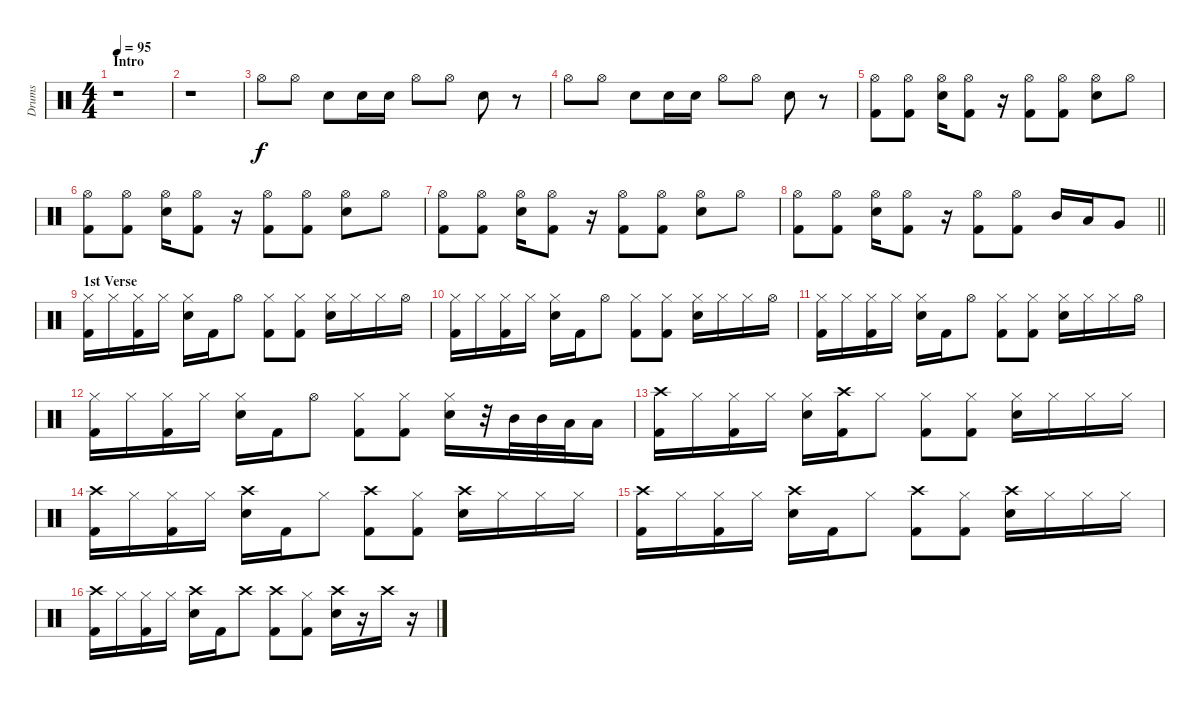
\track ("Drums" "Drums") {instrument percussion}
\staff {score}
\articulation defaults
\ts (4 4)
\section ("" "Intro")
\tempo 95
\clef neutral
\ks c
r.1{dy f} |
r.1 |
"Hi-Hat (open)".8 "Hi-Hat (open)".8 "Hand Clap (hit)".8 "Hand Clap (hit)".16 "Hand Clap (hit)".16 "Hi-Hat (open)".8 "Hi-Hat (open)".8 "Hand Clap (hit)".8 r.8 |
"Hi-Hat (open)".8 "Hi-Hat (open)".8 "Hand Clap (hit)".8 "Hand Clap (hit)".16 "Hand Clap (hit)".16 "Hi-Hat (open)".8 "Hi-Hat (open)".8 "Hand Clap (hit)".8 r.8 |
("Hi-Hat (open)" "Kick (hit) 2").8 ("Hi-Hat (open)" "Kick (hit) 2").8 ("Hi-Hat (open)" "Electric Snare (hit)").16 ("Hi-Hat (open)" "Kick (hit) 2").8 r.16 ("Hi-Hat (open)" "Kick (hit) 2").8 ("Hi-Hat (open)" "Kick (hit) 2").8 ("Hi-Hat (open)" "Electric Snare (hit)").8 "Hi-Hat (open)".8 |
("Hi-Hat (open)" "Kick (hit) 2").8 ("Hi-Hat (open)" "Kick (hit) 2").8 ("Hi-Hat (open)" "Electric Snare (hit)").16 ("Hi-Hat (open)" "Kick (hit) 2").8 r.16 ("Hi-Hat (open)" "Kick (hit) 2").8 ("Hi-Hat (open)" "Kick (hit) 2").8 ("Hi-Hat (open)" "Electric Snare (hit)").8 "Hi-Hat (open)".8 |
("Hi-Hat (open)" "Kick (hit) 2").8 ("Hi-Hat (open)" "Kick (hit) 2").8 ("Hi-Hat (open)" "Electric Snare (hit)").16 ("Hi-Hat (open)" "Kick (hit) 2").8 r.16 ("Hi-Hat (open)" "Kick (hit) 2").8 ("Hi-Hat (open)" "Kick (hit) 2").8 ("Hi-Hat (open)" "Electric Snare (hit)").8 "Hi-Hat (open)".8 |
\barLineRight lightlight
("Hi-Hat (open)" "Kick (hit) 2").8 ("Hi-Hat (open)" "Kick (hit) 2").8 ("Hi-Hat (open)" "Electric Snare (hit)").16 ("Hi-Hat (open)" "Kick (hit) 2").8 r.16 ("Hi-Hat (open)" "Kick (hit) 2").8 ("Hi-Hat (open)" "Kick (hit) 2").8 "Mid Tom (hit)".16 "Low Tom (hit)".16 "Very Low Tom (hit)".8 |
\section ("" "1st Verse")
("Hi-Hat (closed)" "Kick (hit) 2").16 "Hi-Hat (closed)".16 ("Hi-Hat (closed)" "Kick (hit) 2").16 "Hi-Hat (closed)".16 ("Hi-Hat (closed)" "Electric Snare (hit)").16 "Kick (hit) 2".16 "Hi-Hat (open)".8 ("Hi-Hat (closed)" "Kick (hit) 2").8 ("Hi-Hat (closed)" "Kick (hit) 2").8 ("Hi-Hat (closed)" "Electric Snare (hit)").16 "Hi-Hat (closed)".16 "Hi-Hat (closed)".16 "Hi-Hat (open)".16 |
("Hi-Hat (closed)" "Kick (hit) 2").16 "Hi-Hat (closed)".16 ("Hi-Hat (closed)" "Kick (hit) 2").16 "Hi-Hat (closed)".16 ("Hi-Hat (closed)" "Electric Snare (hit)").16 "Kick (hit) 2".16 "Hi-Hat (open)".8 ("Hi-Hat (closed)" "Kick (hit) 2").8 ("Hi-Hat (closed)" "Kick (hit) 2").8 ("Hi-Hat (closed)" "Electric Snare (hit)").16 "Hi-Hat (closed)".16 "Hi-Hat (closed)".16 "Hi-Hat (open)".16 |
("Hi-Hat (closed)" "Kick (hit) 2").16 "Hi-Hat (closed)".16 ("Hi-Hat (closed)" "Kick (hit) 2").16 "Hi-Hat (closed)".16 ("Hi-Hat (closed)" "Electric Snare (hit)").16 "Kick (hit) 2".16 "Hi-Hat (open)".8 ("Hi-Hat (closed)" "Kick (hit) 2").8 ("Hi-Hat (closed)" "Kick (hit) 2").8 ("Hi-Hat (closed)" "Electric Snare (hit)").16 "Hi-Hat (closed)".16 "Hi-Hat (closed)".16 "Hi-Hat (open)".16 |
("Hi-Hat (closed)" "Kick (hit) 2").16 "Hi-Hat (closed)".16 ("Hi-Hat (closed)" "Kick (hit) 2").16 "Hi-Hat (closed)".16 ("Hi-Hat (closed)" "Electric Snare (hit)").16 "Kick (hit) 2".16 "Hi-Hat (open)".8 ("Hi-Hat (closed)" "Kick (hit) 2").8 ("Hi-Hat (closed)" "Kick (hit) 2").8 ("Hi-Hat (closed)" "Electric Snare (hit)").16 r.32 "Mid Tom (hit)".32 "Mid Tom (hit)".32 "Low Tom (hit)".32 "Low Tom (hit)".16 |
("Crash high (hit)" "Kick (hit) 2").16 "Hi-Hat (closed)".16 ("Hi-Hat (closed)" "Kick (hit) 2").16 "Hi-Hat (closed)".16 ("Hi-Hat (closed)" "Electric Snare (hit)").16 ("Crash high (hit)" "Kick (hit) 2").16 "Hi-Hat (closed)".8 ("Hi-Hat (closed)" "Kick (hit) 2").8 ("Hi-Hat (closed)" "Kick (hit) 2").8 ("Hi-Hat (closed)" "Electric Snare (hit)").16 "Hi-Hat (closed)".16 "Hi-Hat (closed)".16 "Hi-Hat (closed)".16 |
("Crash high (hit)" "Kick (hit) 2").16 "Hi-Hat (closed)".16 ("Hi-Hat (closed)" "Kick (hit) 2").16 "Hi-Hat (closed)".16 ("Crash high (hit)" "Electric Snare (hit)").16 "Kick (hit) 2".16 "Hi-Hat (closed)".8 ("Crash high (hit)" "Kick (hit) 2").8 ("Hi-Hat (closed)" "Kick (hit) 2").8 ("Crash high (hit)" "Electric Snare (hit)").16 "Hi-Hat (closed)".16 "Hi-Hat (closed)".16 "Hi-Hat (closed)".16 |
("Crash high (hit)" "Kick (hit) 2").16 "Hi-Hat (closed)".16 ("Hi-Hat (closed)" "Kick (hit) 2").16 "Hi-Hat (closed)".16 ("Crash high (hit)" "Electric Snare (hit)").16 "Kick (hit) 2".16 "Hi-Hat (closed)".8 ("Crash high (hit)" "Kick (hit) 2").8 ("Hi-Hat (closed)" "Kick (hit) 2").8 ("Crash high (hit)" "Electric Snare (hit)").16 "Hi-Hat (closed)".16 "Hi-Hat (closed)".16 "Hi-Hat (closed)".16 |
("Crash high (hit)" "Kick (hit) 2").16 "Hi-Hat (closed)".16 ("Hi-Hat (closed)" "Kick (hit) 2").16 "Hi-Hat (closed)".16 ("Crash high (hit)" "Electric Snare (hit)").16 "Kick (hit) 2".16 "Crash high (hit)".8 ("Crash high (hit)" "Kick (hit) 2").8 ("Hi-Hat (closed)" "Kick (hit) 2").8 ("Crash high (hit)" "Electric Snare (hit)").16 r.16 "Crash high (hit)".16 r.16
